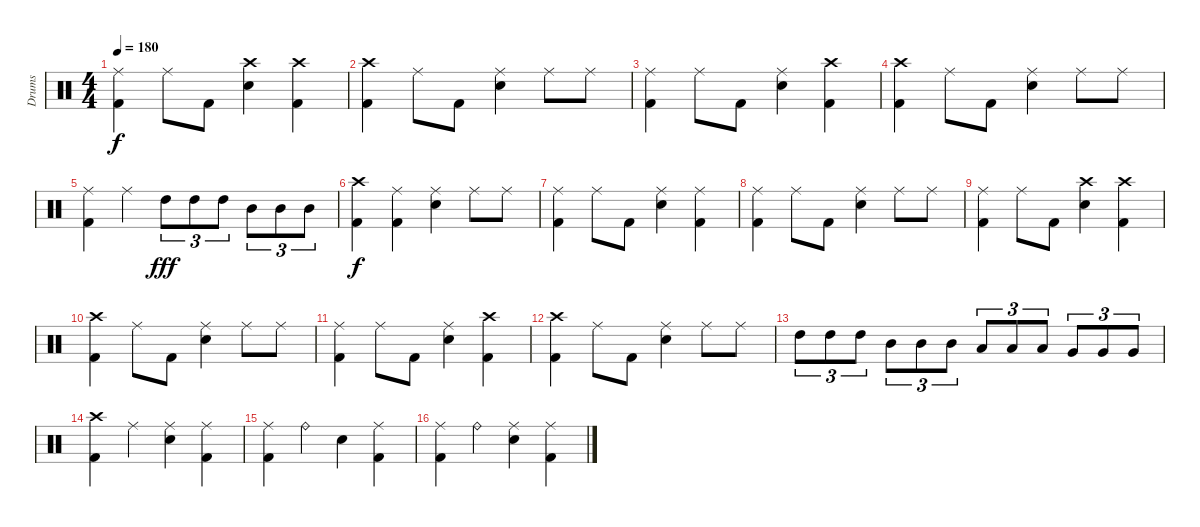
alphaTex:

\track ("Drums" "Drums") {instrument percussion}
\staff {score}
\articulation defaults
\ts (4 4)
\tempo 180
\clef neutral
\ks c
("Ride (middle)" "Kick (hit) 2").4{dy f} "Ride (middle)".8 "Kick (hit) 2".8 ("Crash high (hit)" "Snare (hit) 2").4 ("Crash high (hit)" "Kick (hit) 2").4 |
("Crash high (hit)" "Kick (hit) 2").4 "Ride (middle)".8 "Kick (hit) 2".8 ("Ride (middle)" "Snare (hit) 2").4 "Ride (middle)".8 "Ride (middle)".8 |
("Ride (middle)" "Kick (hit) 2").4 "Ride (middle)".8 "Kick (hit) 2".8 ("Ride (middle)" "Snare (hit) 2").4 ("Crash high (hit)" "Kick (hit) 2").4 |
("Crash high (hit)" "Kick (hit) 2").4 "Ride (middle)".8 "Kick (hit) 2".8 ("Ride (middle)" "Snare (hit) 2").4 "Ride (middle)".8 "Ride (middle)".8 |
("Ride (middle)" "Kick (hit) 2").4 "Ride (middle)".4 "High Tom (hit)".8{tu (3 2) dy fff} "High Tom (hit)".8{tu (3 2)} "High Tom (hit)".8{tu (3 2)} "Mid Tom (hit)".8{tu (3 2)} "Mid Tom (hit)".8{tu (3 2)} "Mid Tom (hit)".8{tu (3 2)} |
("Crash high (hit)" "Kick (hit) 2").4{dy f} ("Ride (middle)" "Kick (hit) 2").4 ("Ride (middle)" "Snare (hit) 2").4 "Ride (middle)".8 "Ride (middle)".8 |
("Ride (middle)" "Kick (hit) 2").4 "Ride (middle)".8 "Kick (hit) 2".8 ("Ride (middle)" "Snare (hit) 2").4 ("Ride (middle)" "Kick (hit) 2").4 |
("Ride (middle)" "Kick (hit) 2").4 "Ride (middle)".8 "Kick (hit) 2".8 ("Ride (middle)" "Snare (hit) 2").4 "Ride (middle)".8 "Ride (middle)".8 |
("Ride (middle)" "Kick (hit) 2").4 "Ride (middle)".8 "Kick (hit) 2".8 ("Crash high (hit)" "Snare (hit) 2").4 ("Crash high (hit)" "Kick (hit) 2").4 |
("Crash high (hit)" "Kick (hit) 2").4 "Ride (middle)".8 "Kick (hit) 2".8 ("Ride (middle)" "Snare (hit) 2").4 "Ride (middle)".8 "Ride (middle)".8 |
("Ride (middle)" "Kick (hit) 2").4 "Ride (middle)".8 "Kick (hit) 2".8 ("Ride (middle)" "Snare (hit) 2").4 ("Crash high (hit)" "Kick (hit) 2").4 |
("Crash high (hit)" "Kick (hit) 2").4 "Ride (middle)".8 "Kick (hit) 2".8 ("Ride (middle)" "Snare (hit) 2").4 "Ride (middle)".8 "Ride (middle)".8 |
"High Tom (hit)".8{tu (3 2)} "High Tom (hit)".8{tu (3 2)} "High Tom (hit)".8{tu (3 2)} "Mid Tom (hit)".8{tu (3 2)} "Mid Tom (hit)".8{tu (3 2)} "Mid Tom (hit)".8{tu (3 2)} "Low Tom (hit)".8{tu (3 2)} "Low Tom (hit)".8{tu (3 2)} "Low Tom (hit)".8{tu (3 2)} "Very Low Tom (hit)".8{tu (3 2)} "Very Low Tom (hit)".8{tu (3 2)} "Very Low Tom (hit)".8{tu (3 2)} |
("Crash high (hit)" "Kick (hit) 2").4 "Ride (middle)".4 ("Ride (middle)" "Snare (hit) 2").4 ("Ride (middle)" "Kick (hit) 2").4 |
("Ride (middle)" "Kick (hit) 2").4 "Ride (bell)".4 "Snare (hit) 2".4 ("Ride (middle)" "Kick (hit) 2").4 |
("Ride (middle)" "Kick (hit) 2").4 "Ride (bell)".4 ("Ride (middle)" "Snare (hit) 2").4 ("Ride (middle)" "Kick (hit) 2").4
